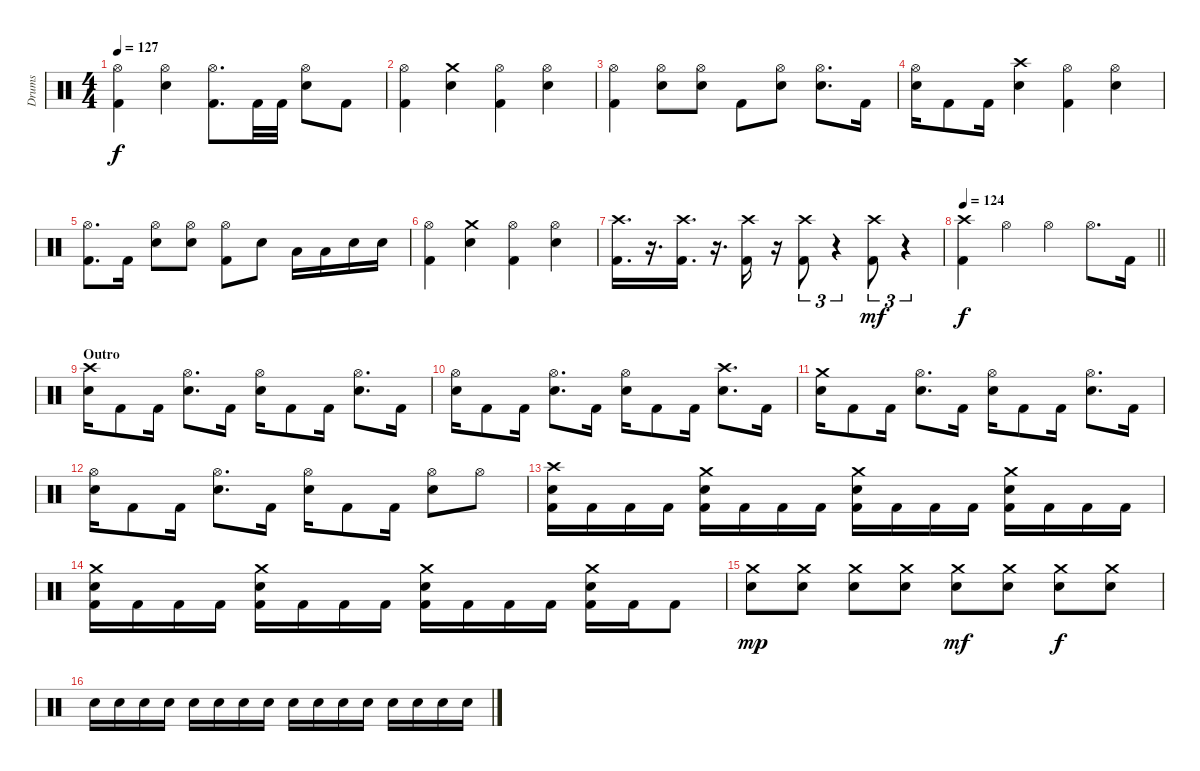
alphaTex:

\track ("Drums" "Drums") {instrument percussion}
\staff {score}
\articulation defaults
\ts (4 4)
\tempo 127
\clef neutral
\ks c
("Hi-Hat (open)" "Kick (hit) 2").4{dy f} ("Hi-Hat (open)" "Snare (hit) 2").4 ("Hi-Hat (open)" "Kick (hit) 2").8{d} "Kick (hit) 2".32 "Kick (hit) 2".32 ("Hi-Hat (open)" "Snare (hit) 2").8 "Kick (hit) 2".8 |
("Hi-Hat (open)" "Kick (hit) 2").4 ("Crash medium (hit)" "Snare (hit) 2").4 ("Hi-Hat (open)" "Kick (hit) 2").4 ("Hi-Hat (open)" "Snare (hit) 2").4 |
("Hi-Hat (open)" "Kick (hit) 2").4 ("Hi-Hat (open)" "Snare (hit) 2").8 ("Hi-Hat (open)" "Snare (hit) 2").8 "Kick (hit) 2".8 ("Hi-Hat (open)" "Snare (hit) 2").8 ("Hi-Hat (open)" "Snare (hit) 2").8{d} "Kick (hit) 2".16 |
("Hi-Hat (open)" "Snare (hit) 2").16 "Kick (hit) 2".8 "Kick (hit) 2".16 ("Crash high (hit)" "Snare (hit) 2").4 ("Hi-Hat (open)" "Kick (hit) 2").4 ("Hi-Hat (open)" "Snare (hit) 2").4 |
("Hi-Hat (open)" "Kick (hit) 2").8{d} "Kick (hit) 2".16 ("Hi-Hat (open)" "Snare (hit) 2").8 ("Hi-Hat (open)" "Snare (hit) 2").8 ("Hi-Hat (open)" "Kick (hit) 2").8 "Snare (hit) 2".8 "Low Tom (hit)".16 "Low Tom (hit)".16 "Snare (hit) 2".16 "Snare (hit) 2".16 |
("Hi-Hat (open)" "Kick (hit) 2").4 ("Crash medium (hit)" "Snare (hit) 2").4 ("Hi-Hat (open)" "Kick (hit) 2").4 ("Hi-Hat (open)" "Snare (hit) 2").4 |
("Crash high (hit)" "Kick (hit) 2").16{d} r.16{d} ("Crash high (hit)" "Kick (hit) 2").16{d} r.16{d} ("Crash high (hit)" "Kick (hit) 2").16 r.16 ("Crash high (hit)" "Kick (hit) 2").8{tu (3 2)} r.4{tu (3 2)} ("Crash high (hit)" "Kick (hit) 2").8{tu (3 2) dy mf} r.4{tu (3 2)} |
\tempo 124
\barLineRight lightlight
("Crash high (hit)" "Kick (hit) 2").4{dy f} "Hi-Hat (open)".4 "Hi-Hat (open)".4 "Hi-Hat (open)".8{d} "Kick (hit) 2".16 |
\section ("" "Outro")
("Crash high (hit)" "Snare (hit) 2").16 "Kick (hit) 2".8 "Kick (hit) 2".16 ("Hi-Hat (open)" "Snare (hit) 2").8{d} "Kick (hit) 2".16 ("Hi-Hat (open)" "Snare (hit) 2").16 "Kick (hit) 2".8 "Kick (hit) 2".16 ("Hi-Hat (open)" "Snare (hit) 2").8{d} "Kick (hit) 2".16 |
("Hi-Hat (open)" "Snare (hit) 2").16 "Kick (hit) 2".8 "Kick (hit) 2".16 ("Hi-Hat (open)" "Snare (hit) 2").8{d} "Kick (hit) 2".16 ("Hi-Hat (open)" "Snare (hit) 2").16 "Kick (hit) 2".8 "Kick (hit) 2".16 ("Crash high (hit)" "Snare (hit) 2").8{d} "Kick (hit) 2".16 |
("Crash medium (hit)" "Snare (hit) 2").16 "Kick (hit) 2".8 "Kick (hit) 2".16 ("Hi-Hat (open)" "Snare (hit) 2").8{d} "Kick (hit) 2".16 ("Hi-Hat (open)" "Snare (hit) 2").16 "Kick (hit) 2".8 "Kick (hit) 2".16 ("Hi-Hat (open)" "Snare (hit) 2").8{d} "Kick (hit) 2".16 |
("Hi-Hat (open)" "Snare (hit) 2").16 "Kick (hit) 2".8 "Kick (hit) 2".16 ("Hi-Hat (open)" "Snare (hit) 2").8{d} "Kick (hit) 2".16 ("Hi-Hat (open)" "Snare (hit) 2").16 "Kick (hit) 2".8 "Kick (hit) 2".16 ("Hi-Hat (open)" "Snare (hit) 2").8 "Hi-Hat (open)".8 |
("Crash high (hit)" "Snare (hit) 2" "Kick (hit) 2").16 "Kick (hit) 2".16 "Kick (hit) 2".16 "Kick (hit) 2".16 ("Crash medium (hit)" "Snare (hit) 2" "Kick (hit) 2").16 "Kick (hit) 2".16 "Kick (hit) 2".16 "Kick (hit) 2".16 ("Crash medium (hit)" "Snare (hit) 2" "Kick (hit) 2").16 "Kick (hit) 2".16 "Kick (hit) 2".16 "Kick (hit) 2".16 ("Crash medium (hit)" "Snare (hit) 2" "Kick (hit) 2").16 "Kick (hit) 2".16 "Kick (hit) 2".16 "Kick (hit) 2".16 |
("Crash medium (hit)" "Snare (hit) 2" "Kick (hit) 2").16 "Kick (hit) 2".16 "Kick (hit) 2".16 "Kick (hit) 2".16 ("Crash medium (hit)" "Snare (hit) 2" "Kick (hit) 2").16 "Kick (hit) 2".16 "Kick (hit) 2".16 "Kick (hit) 2".16 ("Crash medium (hit)" "Snare (hit) 2" "Kick (hit) 2").16 "Kick (hit) 2".16 "Kick (hit) 2".16 "Kick (hit) 2".16 ("Crash medium (hit)" "Snare (hit) 2" "Kick (hit) 2").16 "Kick (hit) 2".16 "Kick (hit) 2".8 |
("Crash medium (hit)" "Snare (hit) 2").8{dy mp} ("Crash medium (hit)" "Snare (hit) 2").8 ("Crash medium (hit)" "Snare (hit) 2").8 ("Crash medium (hit)" "Snare (hit) 2").8 ("Crash medium (hit)" "Snare (hit) 2").8{dy mf} ("Crash medium (hit)" "Snare (hit) 2").8 ("Crash medium (hit)" "Snare (hit) 2").8{dy f} ("Crash medium (hit)" "Snare (hit) 2").8 |
"Snare (hit) 2".16 "Snare (hit) 2".16 "Snare (hit) 2".16 "Snare (hit) 2".16 "Snare (hit) 2".16 "Snare (hit) 2".16 "Snare (hit) 2".16 "Snare (hit) 2".16 "Snare (hit) 2".16 "Snare (hit) 2".16 "Snare (hit) 2".16 "Snare (hit) 2".16 "Snare (hit) 2".16 "Snare (hit) 2".16 "Snare (hit) 2".16 "Snare (hit) 2".16
